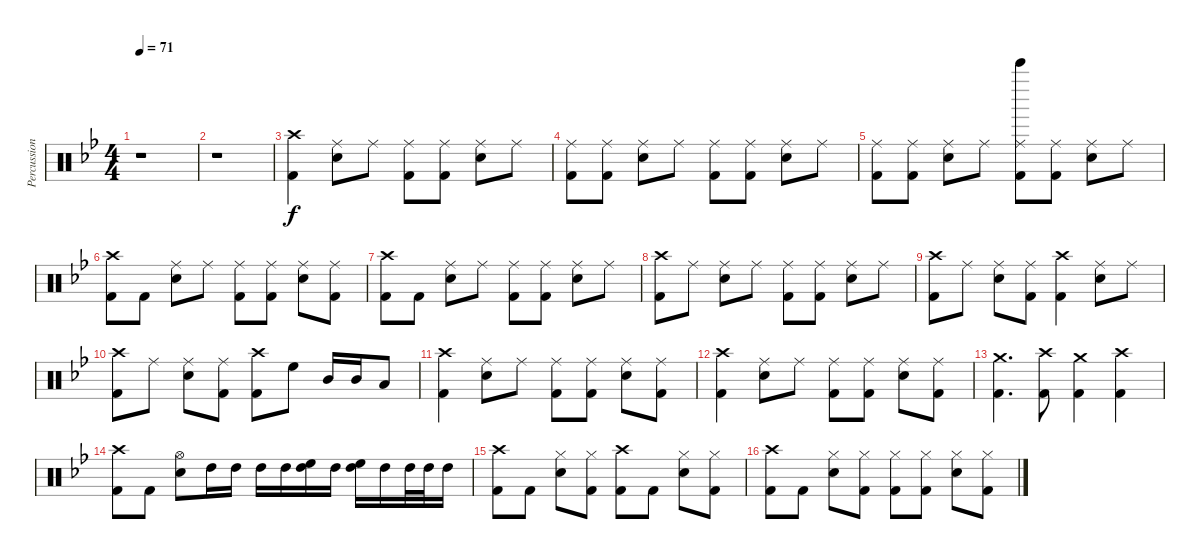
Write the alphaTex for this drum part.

\track ("Percussion" "Percussion") {instrument percussion}
\staff {score}
\articulation defaults
\ts (4 4)
\tempo 71
\clef neutral
\ks bb
r.1{dy f} |
r.1 |
("Crash high (hit)" "Kick (hit) 2").4 ("Ride (middle)" "Snare (hit) 2").8 "Ride (middle)".8 ("Ride (middle)" "Kick (hit) 2").8 ("Ride (middle)" "Kick (hit) 2").8 ("Ride (middle)" "Snare (hit) 2").8 "Ride (middle)".8 |
("Ride (middle)" "Kick (hit) 2").8 ("Ride (middle)" "Kick (hit) 2").8 ("Ride (middle)" "Snare (hit) 2").8 "Ride (middle)".8 ("Ride (middle)" "Kick (hit) 2").8 ("Ride (middle)" "Kick (hit) 2").8 ("Ride (middle)" "Snare (hit) 2").8 "Ride (middle)".8 |
("Ride (middle)" "Kick (hit) 2").8 ("Ride (middle)" "Kick (hit) 2").8 ("Ride (middle)" "Snare (hit) 2").8 "Ride (middle)".8 ("Ride (middle)" "Bell Tree (hit)" "Kick (hit) 2").8 ("Ride (middle)" "Kick (hit) 2").8 ("Ride (middle)" "Snare (hit) 2").8 "Ride (middle)".8 |
("Crash high (hit)" "Kick (hit) 2").8 "Kick (hit) 2".8 ("Ride (middle)" "Snare (hit) 2").8 "Ride (middle)".8 ("Ride (middle)" "Kick (hit) 2").8 ("Ride (middle)" "Kick (hit) 2").8 ("Ride (middle)" "Snare (hit) 2").8 ("Ride (middle)" "Kick (hit) 2").8 |
("Crash high (hit)" "Kick (hit) 2").8 "Kick (hit) 2".8 ("Ride (middle)" "Snare (hit) 2").8 "Ride (middle)".8 ("Ride (middle)" "Kick (hit) 2").8 ("Ride (middle)" "Kick (hit) 2").8 ("Ride (middle)" "Snare (hit) 2").8 "Ride (middle)".8 |
("Crash high (hit)" "Kick (hit) 2").8 "Ride (middle)".8 ("Ride (middle)" "Snare (hit) 2").8 "Ride (middle)".8 ("Ride (middle)" "Kick (hit) 2").8 ("Ride (middle)" "Kick (hit) 2").8 ("Ride (middle)" "Snare (hit) 2").8 "Ride (middle)".8 |
("Crash high (hit)" "Kick (hit) 2").8 "Ride (middle)".8 ("Ride (middle)" "Snare (hit) 2").8 ("Ride (middle)" "Kick (hit) 2").8 ("Crash high (hit)" "Kick (hit) 2").4 ("Ride (middle)" "Snare (hit) 2").8 "Ride (middle)".8 |
("Crash high (hit)" "Kick (hit) 2").8 "Ride (middle)".8 ("Ride (middle)" "Snare (hit) 2").8 ("Ride (middle)" "Kick (hit) 2").8 ("Crash high (hit)" "Kick (hit) 2").8 "High Floor Tom (hit)".8 "Mid Tom (hit)".16 "Mid Tom (hit)".16 "Low Tom (hit)".8 |
("Crash high (hit)" "Kick (hit) 2").4 ("Ride (middle)" "Snare (hit) 2").8 "Ride (middle)".8 ("Ride (middle)" "Kick (hit) 2").8 ("Ride (middle)" "Kick (hit) 2").8 ("Ride (middle)" "Snare (hit) 2").8 ("Ride (middle)" "Kick (hit) 2").8 |
("Crash high (hit)" "Kick (hit) 2").4 ("Ride (middle)" "Snare (hit) 2").8 "Ride (middle)".8 ("Ride (middle)" "Kick (hit) 2").8 ("Ride (middle)" "Kick (hit) 2").8 ("Ride (middle)" "Snare (hit) 2").8 ("Ride (middle)" "Kick (hit) 2").8 |
("Crash medium (hit)" "Kick (hit) 2").4{d} ("Crash high (hit)" "Kick (hit) 2").8 ("Crash medium (hit)" "Kick (hit) 2").4 ("Crash high (hit)" "Kick (hit) 2").4 |
("Crash high (hit)" "Kick (hit) 2").8 "Kick (hit) 2".8 ("Hi-Hat (open)" "Snare (hit) 2").8 "High Tom (hit)".16 "High Tom (hit)".16 "High Tom (hit)".16 "High Tom (hit)".16 ("High Tom (hit)" "High Floor Tom (hit)").16 "High Tom (hit)".16 ("High Tom (hit)" "High Floor Tom (hit)").16 "High Tom (hit)".16 "High Tom (hit)".32 "High Tom (hit)".32 "High Tom (hit)".16 |
("Crash high (hit)" "Kick (hit) 2").8 "Kick (hit) 2".8 ("Hi-Hat (closed)" "Snare (hit) 2").8 ("Hi-Hat (closed)" "Kick (hit) 2").8 ("Crash high (hit)" "Kick (hit) 2").8 "Kick (hit) 2".8 ("Hi-Hat (closed)" "Snare (hit) 2").8 ("Hi-Hat (closed)" "Kick (hit) 2").8 |
("Crash high (hit)" "Kick (hit) 2").8 "Kick (hit) 2".8 ("Hi-Hat (closed)" "Snare (hit) 2").8 ("Hi-Hat (closed)" "Kick (hit) 2").8 ("Hi-Hat (closed)" "Kick (hit) 2").8 ("Hi-Hat (closed)" "Kick (hit) 2").8 ("Hi-Hat (closed)" "Snare (hit) 2").8 ("Hi-Hat (closed)" "Kick (hit) 2").8
